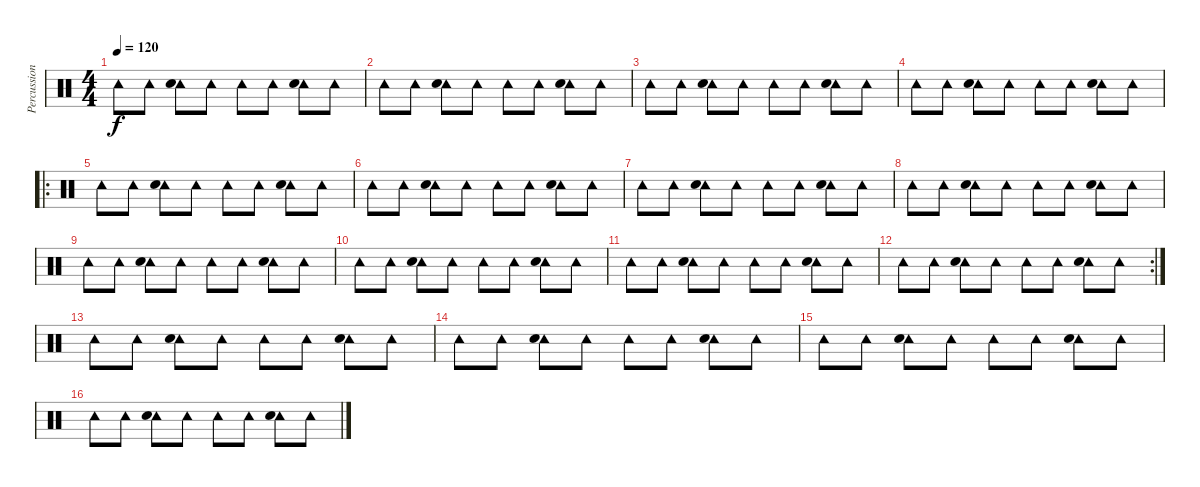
\track ("Percussions (Moe Tucker)" "Percussion") {instrument percussion}
\staff {score}
\articulation defaults
\ts (4 4)
\tempo 120
\clef neutral
\ks c "Tambourine (hit)".8{dy f} "Tambourine (hit)".8
("Tambourine (hit)" "Snare (hit) 2").8 "Tambourine (hit)".8 "Tambourine (hit)".8 "Tambourine (hit)".8 ("Tambourine (hit)" "Snare (hit) 2").8 "Tambourine (hit)".8 |
"Tambourine (hit)".8 "Tambourine (hit)".8 ("Tambourine (hit)" "Snare (hit) 2").8 "Tambourine (hit)".8 "Tambourine (hit)".8 "Tambourine (hit)".8 ("Tambourine (hit)" "Snare (hit) 2").8 "Tambourine (hit)".8 |
"Tambourine (hit)".8 "Tambourine (hit)".8 ("Tambourine (hit)" "Snare (hit) 2").8 "Tambourine (hit)".8 "Tambourine (hit)".8 "Tambourine (hit)".8 ("Tambourine (hit)" "Snare (hit) 2").8 "Tambourine (hit)".8 |
"Tambourine (hit)".8 "Tambourine (hit)".8 ("Tambourine (hit)" "Snare (hit) 2").8 "Tambourine (hit)".8 "Tambourine (hit)".8 "Tambourine (hit)".8 ("Tambourine (hit)" "Snare (hit) 2").8 "Tambourine (hit)".8 |
\ro "Tambourine (hit)".8 "Tambourine (hit)".8
("Tambourine (hit)" "Snare (hit) 2").8 "Tambourine (hit)".8 "Tambourine (hit)".8 "Tambourine (hit)".8 ("Tambourine (hit)" "Snare (hit) 2").8 "Tambourine (hit)".8 |
"Tambourine (hit)".8 "Tambourine (hit)".8 ("Tambourine (hit)" "Snare (hit) 2").8 "Tambourine (hit)".8 "Tambourine (hit)".8 "Tambourine (hit)".8 ("Tambourine (hit)" "Snare (hit) 2").8 "Tambourine (hit)".8 |
"Tambourine (hit)".8 "Tambourine (hit)".8 ("Tambourine (hit)" "Snare (hit) 2").8 "Tambourine (hit)".8 "Tambourine (hit)".8 "Tambourine (hit)".8 ("Tambourine (hit)" "Snare (hit) 2").8 "Tambourine (hit)".8 |
"Tambourine (hit)".8 "Tambourine (hit)".8 ("Tambourine (hit)" "Snare (hit) 2").8 "Tambourine (hit)".8 "Tambourine (hit)".8 "Tambourine (hit)".8 ("Tambourine (hit)" "Snare (hit) 2").8 "Tambourine (hit)".8 |
"Tambourine (hit)".8 "Tambourine (hit)".8 ("Tambourine (hit)" "Snare (hit) 2").8 "Tambourine (hit)".8 "Tambourine (hit)".8 "Tambourine (hit)".8 ("Tambourine (hit)" "Snare (hit) 2").8 "Tambourine (hit)".8 |
"Tambourine (hit)".8 "Tambourine (hit)".8 ("Tambourine (hit)" "Snare (hit) 2").8 "Tambourine (hit)".8 "Tambourine (hit)".8 "Tambourine (hit)".8 ("Tambourine (hit)" "Snare (hit) 2").8 "Tambourine (hit)".8 |
"Tambourine (hit)".8 "Tambourine (hit)".8 ("Tambourine (hit)" "Snare (hit) 2").8 "Tambourine (hit)".8 "Tambourine (hit)".8 "Tambourine (hit)".8 ("Tambourine (hit)" "Snare (hit) 2").8 "Tambourine (hit)".8 |
\rc 2 "Tambourine (hit)".8 "Tambourine (hit)".8
("Tambourine (hit)" "Snare (hit) 2").8 "Tambourine (hit)".8 "Tambourine (hit)".8 "Tambourine (hit)".8 ("Tambourine (hit)" "Snare (hit) 2").8 "Tambourine (hit)".8 |
"Tambourine (hit)".8 "Tambourine (hit)".8 ("Tambourine (hit)" "Snare (hit) 2").8 "Tambourine (hit)".8 "Tambourine (hit)".8 "Tambourine (hit)".8 ("Tambourine (hit)" "Snare (hit) 2").8 "Tambourine (hit)".8 |
"Tambourine (hit)".8 "Tambourine (hit)".8 ("Tambourine (hit)" "Snare (hit) 2").8 "Tambourine (hit)".8 "Tambourine (hit)".8 "Tambourine (hit)".8 ("Tambourine (hit)" "Snare (hit) 2").8 "Tambourine (hit)".8 |
"Tambourine (hit)".8 "Tambourine (hit)".8 ("Tambourine (hit)" "Snare (hit) 2").8 "Tambourine (hit)".8 "Tambourine (hit)".8 "Tambourine (hit)".8 ("Tambourine (hit)" "Snare (hit) 2").8 "Tambourine (hit)".8 |
"Tambourine (hit)".8 "Tambourine (hit)".8 ("Tambourine (hit)" "Snare (hit) 2").8 "Tambourine (hit)".8 "Tambourine (hit)".8 "Tambourine (hit)".8 ("Tambourine (hit)" "Snare (hit) 2").8 "Tambourine (hit)".8
